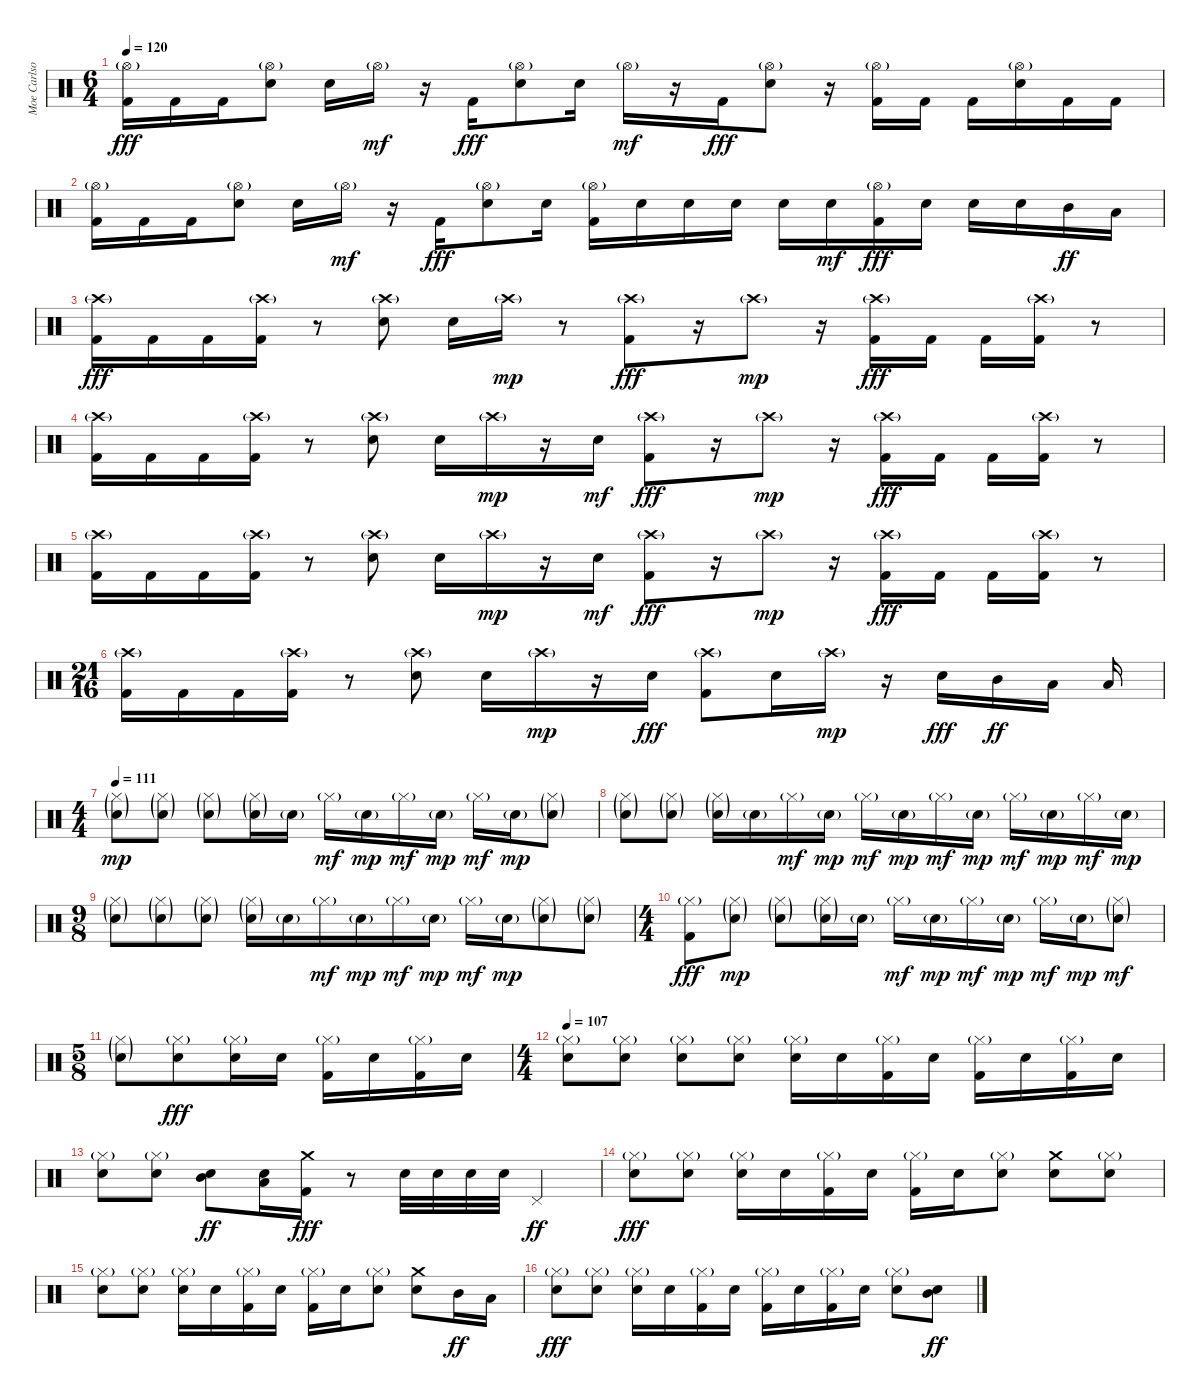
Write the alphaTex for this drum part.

\track ("Moe Carlson" "Moe Carlso") {instrument percussion}
\staff {score}
\articulation defaults
\ts (6 4)
\tempo 120
\clef neutral
\ks c
("Hi-Hat (open)"{g} "Kick (hit) 2").16{dy fff} "Kick (hit) 2".16 "Kick (hit) 2".16 ("Hi-Hat (open)"{g} "Electric Snare (hit)").8 "Electric Snare (hit)".16 "Hi-Hat (open)"{g}.16{dy mf} r.16 "Kick (hit) 2".16{dy fff} ("Hi-Hat (open)"{g} "Electric Snare (hit)").8 "Electric Snare (hit)".16 "Hi-Hat (open)"{g}.16{dy mf} r.16 "Kick (hit) 2".16{dy fff} ("Hi-Hat (open)"{g} "Electric Snare (hit)").8 r.16 ("Hi-Hat (open)"{g} "Kick (hit) 2").16 "Kick (hit) 2".16 "Kick (hit) 2".16 ("Hi-Hat (open)"{g} "Electric Snare (hit)").16 "Kick (hit) 2".16 "Kick (hit) 2".16 |
("Hi-Hat (open)"{g} "Kick (hit) 2").16 "Kick (hit) 2".16 "Kick (hit) 2".16 ("Hi-Hat (open)"{g} "Electric Snare (hit)").8 "Electric Snare (hit)".16 "Hi-Hat (open)"{g}.16{dy mf} r.16 "Kick (hit) 2".16{dy fff} ("Hi-Hat (open)"{g} "Electric Snare (hit)").8 "Electric Snare (hit)".16 ("Hi-Hat (open)"{g} "Kick (hit) 2").16 "Electric Snare (hit)".16 "Electric Snare (hit)".16 "Electric Snare (hit)".16 "Electric Snare (hit)".16 "Electric Snare (hit)".16{dy mf} ("Hi-Hat (open)"{g} "Kick (hit) 2").16{dy fff} "Electric Snare (hit)".16 "Electric Snare (hit)".16 "Electric Snare (hit)".16 "Mid Tom (hit)".16{dy ff} "Low Tom (hit)".16 |
("Crash high (hit)"{g} "Kick (hit) 2").16{dy fff} "Kick (hit) 2".16 "Kick (hit) 2".16 ("Crash high (hit)"{g} "Kick (hit) 2").16 r.8 ("Crash high (hit)"{g} "Electric Snare (hit)").8 "Electric Snare (hit)".16 "Crash high (hit)"{g}.16{dy mp} r.8 ("Crash high (hit)"{g} "Kick (hit) 2").8{dy fff} r.16 "Crash high (hit)"{g}.8{dy mp} r.16 ("Crash high (hit)"{g} "Kick (hit) 2").16{dy fff} "Kick (hit) 2".16 "Kick (hit) 2".16 ("Crash high (hit)"{g} "Kick (hit) 2").16 r.8 |
("Crash high (hit)"{g} "Kick (hit) 2").16 "Kick (hit) 2".16 "Kick (hit) 2".16 ("Crash high (hit)"{g} "Kick (hit) 2").16 r.8 ("Crash high (hit)"{g} "Electric Snare (hit)").8 "Electric Snare (hit)".16 "Crash high (hit)"{g}.16{dy mp} r.16 "Electric Snare (hit)".16{dy mf} ("Crash high (hit)"{g} "Kick (hit) 2").8{dy fff} r.16 "Crash high (hit)"{g}.8{dy mp} r.16 ("Crash high (hit)"{g} "Kick (hit) 2").16{dy fff} "Kick (hit) 2".16 "Kick (hit) 2".16 ("Crash high (hit)"{g} "Kick (hit) 2").16 r.8 |
("Crash high (hit)"{g} "Kick (hit) 2").16 "Kick (hit) 2".16 "Kick (hit) 2".16 ("Crash high (hit)"{g} "Kick (hit) 2").16 r.8 ("Crash high (hit)"{g} "Electric Snare (hit)").8 "Electric Snare (hit)".16 "Crash high (hit)"{g}.16{dy mp} r.16 "Electric Snare (hit)".16{dy mf} ("Crash high (hit)"{g} "Kick (hit) 2").8{dy fff} r.16 "Crash high (hit)"{g}.8{dy mp} r.16 ("Crash high (hit)"{g} "Kick (hit) 2").16{dy fff} "Kick (hit) 2".16 "Kick (hit) 2".16 ("Crash high (hit)"{g} "Kick (hit) 2").16 r.8 |
\ts (21 16)
("Crash high (hit)"{g} "Kick (hit) 2").16 "Kick (hit) 2".16 "Kick (hit) 2".16 ("Crash high (hit)"{g} "Kick (hit) 2").16 r.8 ("Crash high (hit)"{g} "Electric Snare (hit)").8 "Electric Snare (hit)".16 "Crash high (hit)"{g}.16{dy mp} r.16 "Electric Snare (hit)".16{dy fff} ("Crash high (hit)"{g} "Kick (hit) 2").8 "Electric Snare (hit)".16 "Crash high (hit)"{g}.16{dy mp} r.16 "Electric Snare (hit)".16{dy fff} "Mid Tom (hit)".16{dy ff} "Low Tom (hit)".16 "Low Tom (hit)".16 |
\ts (4 4)
\tempo 111
("Hi-Hat (closed)"{g} "Electric Snare (hit)"{g}).8{dy mp} ("Hi-Hat (closed)"{g} "Electric Snare (hit)"{g}).8 ("Hi-Hat (closed)"{g} "Electric Snare (hit)"{g}).8 ("Hi-Hat (closed)"{g} "Electric Snare (hit)"{g}).16 "Electric Snare (hit)"{g}.16 "Hi-Hat (closed)"{g}.16{dy mf} "Electric Snare (hit)"{g}.16{dy mp} "Hi-Hat (closed)"{g}.16{dy mf} "Electric Snare (hit)"{g}.16{dy mp} "Hi-Hat (closed)"{g}.16{dy mf} "Electric Snare (hit)"{g}.16{dy mp} ("Hi-Hat (closed)"{g} "Electric Snare (hit)"{g}).8 |
("Hi-Hat (closed)"{g} "Electric Snare (hit)"{g}).8 ("Hi-Hat (closed)"{g} "Electric Snare (hit)"{g}).8 ("Hi-Hat (closed)"{g} "Electric Snare (hit)"{g}).16 "Electric Snare (hit)"{g}.16 "Hi-Hat (closed)"{g}.16{dy mf} "Electric Snare (hit)"{g}.16{dy mp} "Hi-Hat (closed)"{g}.16{dy mf} "Electric Snare (hit)"{g}.16{dy mp} "Hi-Hat (closed)"{g}.16{dy mf} "Electric Snare (hit)"{g}.16{dy mp} "Hi-Hat (closed)"{g}.16{dy mf} "Electric Snare (hit)"{g}.16{dy mp} "Hi-Hat (closed)"{g}.16{dy mf} "Electric Snare (hit)"{g}.16{dy mp} |
\ts (9 8)
("Hi-Hat (closed)"{g} "Electric Snare (hit)"{g}).8 ("Hi-Hat (closed)"{g} "Electric Snare (hit)"{g}).8 ("Hi-Hat (closed)"{g} "Electric Snare (hit)"{g}).8 ("Hi-Hat (closed)"{g} "Electric Snare (hit)"{g}).16 "Electric Snare (hit)"{g}.16 "Hi-Hat (closed)"{g}.16{dy mf} "Electric Snare (hit)"{g}.16{dy mp} "Hi-Hat (closed)"{g}.16{dy mf} "Electric Snare (hit)"{g}.16{dy mp} "Hi-Hat (closed)"{g}.16{dy mf} "Electric Snare (hit)"{g}.16{dy mp} ("Hi-Hat (closed)"{g} "Electric Snare (hit)"{g}).8 ("Hi-Hat (closed)"{g} "Electric Snare (hit)"{g}).8 |
\ts (4 4)
("Hi-Hat (closed)"{g} "Kick (hit) 2").8{dy fff} ("Hi-Hat (closed)"{g} "Electric Snare (hit)"{g}).8{dy mp} ("Hi-Hat (closed)"{g} "Electric Snare (hit)"{g}).8 ("Hi-Hat (closed)"{g} "Electric Snare (hit)"{g}).16 "Electric Snare (hit)"{g}.16 "Hi-Hat (closed)"{g}.16{dy mf} "Electric Snare (hit)"{g}.16{dy mp} "Hi-Hat (closed)"{g}.16{dy mf} "Electric Snare (hit)"{g}.16{dy mp} "Hi-Hat (closed)"{g}.16{dy mf} "Electric Snare (hit)"{g}.16{dy mp} ("Hi-Hat (closed)"{g} "Electric Snare (hit)"{g}).8{dy mf} |
\ts (5 8)
("Hi-Hat (closed)"{g} "Electric Snare (hit)"{g}).8 ("Hi-Hat (closed)"{g} "Electric Snare (hit)").8{dy fff} ("Hi-Hat (closed)"{g} "Electric Snare (hit)").16 "Electric Snare (hit)".16 ("Hi-Hat (closed)"{g} "Kick (hit) 2").16 "Electric Snare (hit)".16 ("Hi-Hat (closed)"{g} "Kick (hit) 2").16 "Electric Snare (hit)".16 |
\ts (4 4)
\tempo 107
("Hi-Hat (closed)"{g} "Electric Snare (hit)").8 ("Hi-Hat (closed)"{g} "Electric Snare (hit)").8 ("Hi-Hat (closed)"{g} "Electric Snare (hit)").8 ("Hi-Hat (closed)"{g} "Electric Snare (hit)").8 ("Hi-Hat (closed)"{g} "Electric Snare (hit)").16 "Electric Snare (hit)".16 ("Hi-Hat (closed)"{g} "Kick (hit) 2").16 "Electric Snare (hit)".16 ("Hi-Hat (closed)"{g} "Kick (hit) 2").16 "Electric Snare (hit)".16 ("Hi-Hat (closed)"{g} "Kick (hit) 2").16 "Electric Snare (hit)".16 |
("Hi-Hat (closed)"{g} "Electric Snare (hit)").8 ("Hi-Hat (closed)"{g} "Electric Snare (hit)").8 ("Electric Snare (hit)" "Mid Tom (hit)").8{dy ff} ("Electric Snare (hit)" "Low Tom (hit)").16 ("Crash medium (hit)" "Kick (hit) 2").16{dy fff} r.8 "Electric Snare (hit)".32 "Electric Snare (hit)".32 "Electric Snare (hit)".32 "Electric Snare (hit)".32 "Pedal Hi-Hat (hit)".4{dy ff} |
("Hi-Hat (closed)"{g} "Electric Snare (hit)").8{dy fff} ("Hi-Hat (closed)"{g} "Electric Snare (hit)").8 ("Hi-Hat (closed)"{g} "Electric Snare (hit)").16 "Electric Snare (hit)".16 ("Hi-Hat (closed)"{g} "Kick (hit) 2").16 "Electric Snare (hit)".16 ("Hi-Hat (closed)"{g} "Kick (hit) 2").16 "Electric Snare (hit)".16 ("Hi-Hat (closed)"{g} "Electric Snare (hit)").8 ("Crash medium (hit)" "Electric Snare (hit)").8 ("Hi-Hat (closed)"{g} "Electric Snare (hit)").8 |
("Hi-Hat (closed)"{g} "Electric Snare (hit)").8 ("Hi-Hat (closed)"{g} "Electric Snare (hit)").8 ("Hi-Hat (closed)"{g} "Electric Snare (hit)").16 "Electric Snare (hit)".16 ("Hi-Hat (closed)"{g} "Kick (hit) 2").16 "Electric Snare (hit)".16 ("Hi-Hat (closed)"{g} "Kick (hit) 2").16 "Electric Snare (hit)".16 ("Hi-Hat (closed)"{g} "Electric Snare (hit)").8 ("Crash medium (hit)" "Electric Snare (hit)").8 "Mid Tom (hit)".16{dy ff} "Low Tom (hit)".16 |
("Hi-Hat (closed)"{g} "Electric Snare (hit)").8{dy fff} ("Hi-Hat (closed)"{g} "Electric Snare (hit)").8 ("Hi-Hat (closed)"{g} "Electric Snare (hit)").16 "Electric Snare (hit)".16 ("Hi-Hat (closed)"{g} "Kick (hit) 2").16 "Electric Snare (hit)".16 ("Hi-Hat (closed)"{g} "Kick (hit) 2").16 "Electric Snare (hit)".16 ("Hi-Hat (closed)"{g} "Kick (hit) 2").16 "Electric Snare (hit)".16 ("Hi-Hat (closed)"{g} "Electric Snare (hit)").8 ("Electric Snare (hit)" "Mid Tom (hit)").8{dy ff}
